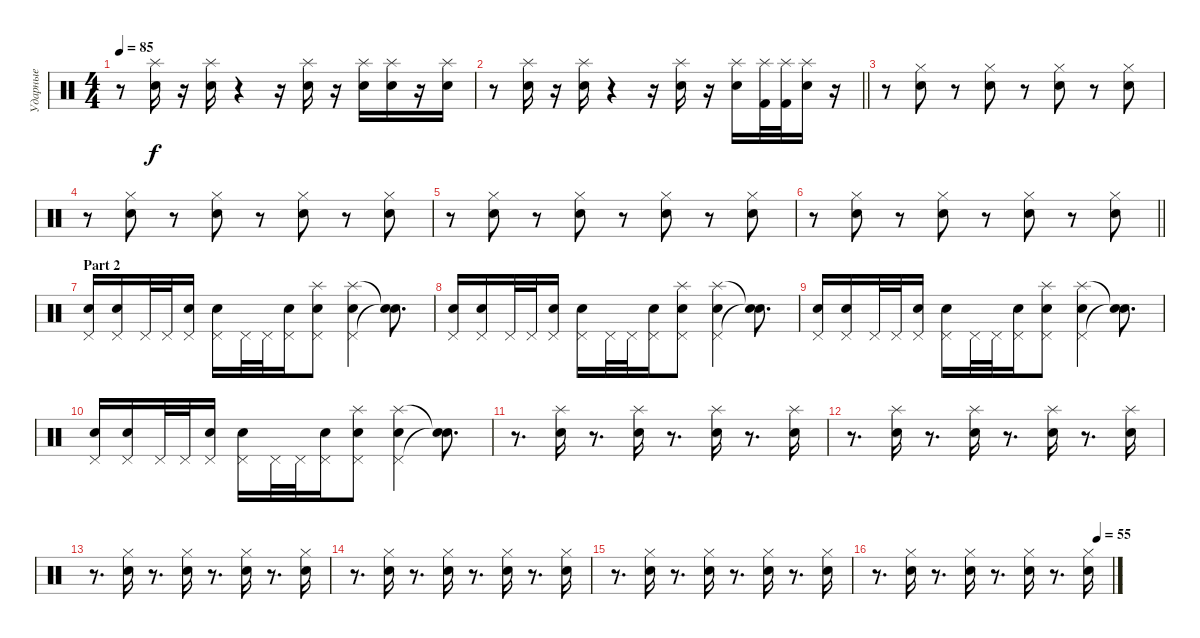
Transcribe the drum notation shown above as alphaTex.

\track ("Ударные" "Ударные") {instrument percussion}
\staff {score}
\articulation defaults
\ts (4 4)
\tempo 85
\clef neutral
\ks c
r.8{dy f} ("Splash (hit)" "Snare (hit) 2").16 r.16 ("Splash (hit)" "Snare (hit) 2").16 r.4 r.16 ("Splash (hit)" "Snare (hit) 2").16 r.16 ("Splash (hit)" "Snare (hit) 2").16 ("Splash (hit)" "Snare (hit) 2").16 r.16 ("Splash (hit)" "Snare (hit) 2").16 |
\barLineRight lightlight
r.8 ("Splash (hit)" "Snare (hit) 2").16 r.16 ("Splash (hit)" "Snare (hit) 2").16 r.4 r.16 ("Splash (hit)" "Snare (hit) 2").16 r.16 ("Splash (hit)" "Snare (hit) 2").16 ("Splash (hit)" "Kick (hit) 2").32 ("Splash (hit)" "Kick (hit) 2").32 ("Splash (hit)" "Snare (hit) 2").16 r.16 |
r.8 ("Hi-Hat (closed)" "Snare (hit) 2").8 r.8 ("Hi-Hat (closed)" "Snare (hit) 2").8 r.8 ("Hi-Hat (closed)" "Snare (hit) 2").8 r.8 ("Hi-Hat (closed)" "Snare (hit) 2").8 |
r.8 ("Hi-Hat (closed)" "Snare (hit) 2").8 r.8 ("Hi-Hat (closed)" "Snare (hit) 2").8 r.8 ("Hi-Hat (closed)" "Snare (hit) 2").8 r.8 ("Hi-Hat (closed)" "Snare (hit) 2").8 |
r.8 ("Hi-Hat (closed)" "Snare (hit) 2").8 r.8 ("Hi-Hat (closed)" "Snare (hit) 2").8 r.8 ("Hi-Hat (closed)" "Snare (hit) 2").8 r.8 ("Hi-Hat (closed)" "Snare (hit) 2").8 |
\barLineRight lightlight
r.8 ("Hi-Hat (closed)" "Snare (hit) 2").8 r.8 ("Hi-Hat (closed)" "Snare (hit) 2").8 r.8 ("Hi-Hat (closed)" "Snare (hit) 2").8 r.8 ("Hi-Hat (closed)" "Snare (hit) 2").8 |
\section ("" "Part 2")
("Pedal Hi-Hat (hit)" "Snare (hit) 2").16 ("Pedal Hi-Hat (hit)" "Snare (hit) 2").16 "Pedal Hi-Hat (hit)".32 "Pedal Hi-Hat (hit)".32 ("Pedal Hi-Hat (hit)" "Snare (hit) 2").16 ("Pedal Hi-Hat (hit)" "Snare (hit) 2").16 "Pedal Hi-Hat (hit)".32 "Pedal Hi-Hat (hit)".32 ("Pedal Hi-Hat (hit)" "Snare (hit) 2").16 ("Pedal Hi-Hat (hit)" "Splash (hit)" "Snare (hit) 2").8 ("Pedal Hi-Hat (hit)" "Splash (hit)" "Snare (hit) 2").4 ("Snare (hit)"{t} "Snare (hit)"{t}).8{d} |
("Pedal Hi-Hat (hit)" "Snare (hit) 2").16 ("Pedal Hi-Hat (hit)" "Snare (hit) 2").16 "Pedal Hi-Hat (hit)".32 "Pedal Hi-Hat (hit)".32 ("Pedal Hi-Hat (hit)" "Snare (hit) 2").16 ("Pedal Hi-Hat (hit)" "Snare (hit) 2").16 "Pedal Hi-Hat (hit)".32 "Pedal Hi-Hat (hit)".32 ("Pedal Hi-Hat (hit)" "Snare (hit) 2").16 ("Pedal Hi-Hat (hit)" "Splash (hit)" "Snare (hit) 2").8 ("Pedal Hi-Hat (hit)" "Splash (hit)" "Snare (hit) 2").4 ("Snare (hit)"{t} "Snare (hit)"{t}).8{d} |
("Pedal Hi-Hat (hit)" "Snare (hit) 2").16 ("Pedal Hi-Hat (hit)" "Snare (hit) 2").16 "Pedal Hi-Hat (hit)".32 "Pedal Hi-Hat (hit)".32 ("Pedal Hi-Hat (hit)" "Snare (hit) 2").16 ("Pedal Hi-Hat (hit)" "Snare (hit) 2").16 "Pedal Hi-Hat (hit)".32 "Pedal Hi-Hat (hit)".32 ("Pedal Hi-Hat (hit)" "Snare (hit) 2").16 ("Pedal Hi-Hat (hit)" "Splash (hit)" "Snare (hit) 2").8 ("Pedal Hi-Hat (hit)" "Splash (hit)" "Snare (hit) 2").4 ("Snare (hit)"{t} "Snare (hit)"{t}).8{d} |
("Pedal Hi-Hat (hit)" "Snare (hit) 2").16 ("Pedal Hi-Hat (hit)" "Snare (hit) 2").16 "Pedal Hi-Hat (hit)".32 "Pedal Hi-Hat (hit)".32 ("Pedal Hi-Hat (hit)" "Snare (hit) 2").16 ("Pedal Hi-Hat (hit)" "Snare (hit) 2").16 "Pedal Hi-Hat (hit)".32 "Pedal Hi-Hat (hit)".32 ("Pedal Hi-Hat (hit)" "Snare (hit) 2").16 ("Pedal Hi-Hat (hit)" "Splash (hit)" "Snare (hit) 2").8 ("Pedal Hi-Hat (hit)" "Splash (hit)" "Snare (hit) 2").4 ("Snare (hit)"{t} "Snare (hit)"{t}).8{d} |
r.8{d} ("Splash (hit)" "Snare (hit) 2").16 r.8{d} ("Splash (hit)" "Snare (hit) 2").16 r.8{d} ("Splash (hit)" "Snare (hit) 2").16 r.8{d} ("Splash (hit)" "Snare (hit) 2").16 |
r.8{d} ("Splash (hit)" "Snare (hit) 2").16 r.8{d} ("Splash (hit)" "Snare (hit) 2").16 r.8{d} ("Splash (hit)" "Snare (hit) 2").16 r.8{d} ("Splash (hit)" "Snare (hit) 2").16 |
r.8{d} ("Hi-Hat (closed)" "Snare (hit) 2").16 r.8{d} ("Hi-Hat (closed)" "Snare (hit) 2").16 r.8{d} ("Hi-Hat (closed)" "Snare (hit) 2").16 r.8{d} ("Hi-Hat (closed)" "Snare (hit) 2").16 |
r.8{d} ("Hi-Hat (closed)" "Snare (hit) 2").16 r.8{d} ("Hi-Hat (closed)" "Snare (hit) 2").16 r.8{d} ("Hi-Hat (closed)" "Snare (hit) 2").16 r.8{d} ("Hi-Hat (closed)" "Snare (hit) 2").16 |
r.8{d} ("Hi-Hat (closed)" "Snare (hit) 2").16 r.8{d} ("Hi-Hat (closed)" "Snare (hit) 2").16 r.8{d} ("Hi-Hat (closed)" "Snare (hit) 2").16 r.8{d} ("Hi-Hat (closed)" "Snare (hit) 2").16 |
\tempo (55 0.9375)
r.8{d} ("Hi-Hat (closed)" "Snare (hit) 2").16 r.8{d} ("Hi-Hat (closed)" "Snare (hit) 2").16 r.8{d} ("Hi-Hat (closed)" "Snare (hit) 2").16 r.8{d} ("Hi-Hat (closed)" "Snare (hit) 2").16
